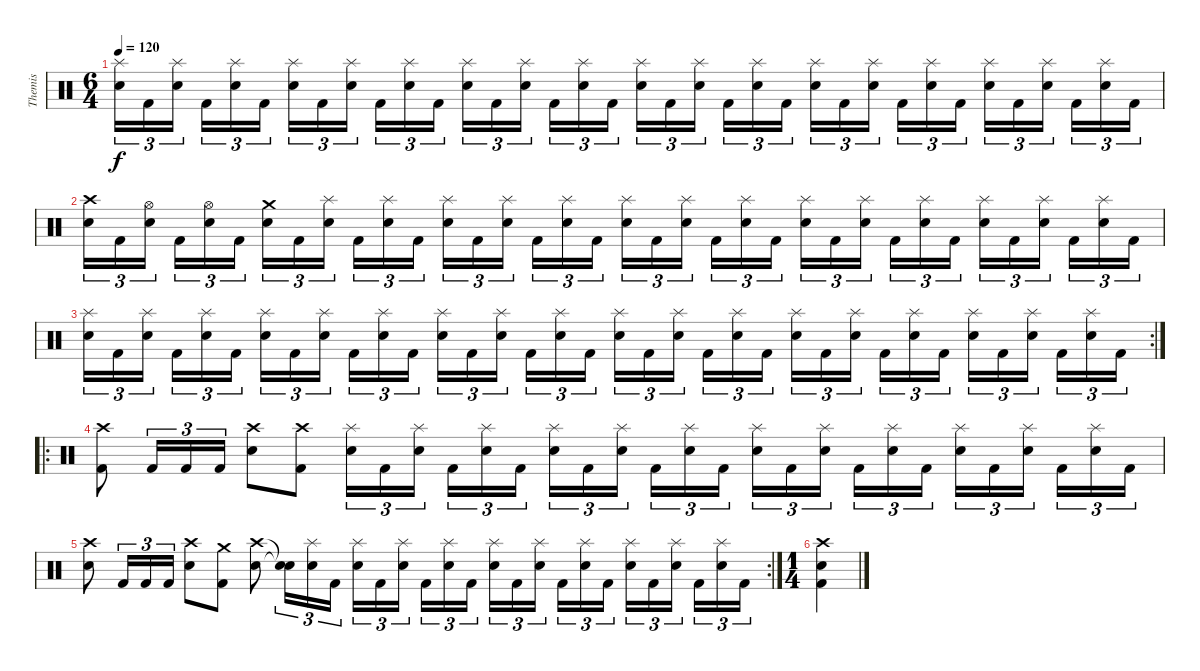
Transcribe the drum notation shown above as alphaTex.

\track ("Themis" "Themis") {instrument percussion}
\staff {score}
\articulation defaults
\ts (6 4)
\tempo 120
\clef neutral
\ks c
("Splash (hit)" "Electric Snare (hit)").16{tu (3 2) dy f} "Kick (hit) 2".16{tu (3 2)} ("Splash (hit)" "Electric Snare (hit)").16{tu (3 2)} "Kick (hit) 2".16{tu (3 2)} ("Splash (hit)" "Electric Snare (hit)").16{tu (3 2)} "Kick (hit) 2".16{tu (3 2)} ("Splash (hit)" "Electric Snare (hit)").16{tu (3 2)} "Kick (hit) 2".16{tu (3 2)} ("Splash (hit)" "Electric Snare (hit)").16{tu (3 2)} "Kick (hit) 2".16{tu (3 2)} ("Splash (hit)" "Electric Snare (hit)").16{tu (3 2)} "Kick (hit) 2".16{tu (3 2)} ("Splash (hit)" "Electric Snare (hit)").16{tu (3 2)} "Kick (hit) 2".16{tu (3 2)} ("Splash (hit)" "Electric Snare (hit)").16{tu (3 2)} "Kick (hit) 2".16{tu (3 2)} ("Splash (hit)" "Electric Snare (hit)").16{tu (3 2)} "Kick (hit) 2".16{tu (3 2)} ("Splash (hit)" "Electric Snare (hit)").16{tu (3 2)} "Kick (hit) 2".16{tu (3 2)} ("Splash (hit)" "Electric Snare (hit)").16{tu (3 2)} "Kick (hit) 2".16{tu (3 2)} ("Splash (hit)" "Electric Snare (hit)").16{tu (3 2)} "Kick (hit) 2".16{tu (3 2)} ("Splash (hit)" "Electric Snare (hit)").16{tu (3 2)} "Kick (hit) 2".16{tu (3 2)} ("Splash (hit)" "Electric Snare (hit)").16{tu (3 2)} "Kick (hit) 2".16{tu (3 2)} ("Splash (hit)" "Electric Snare (hit)").16{tu (3 2)} "Kick (hit) 2".16{tu (3 2)} ("Splash (hit)" "Electric Snare (hit)").16{tu (3 2)} "Kick (hit) 2".16{tu (3 2)} ("Splash (hit)" "Electric Snare (hit)").16{tu (3 2)} "Kick (hit) 2".16{tu (3 2)} ("Splash (hit)" "Electric Snare (hit)").16{tu (3 2)} "Kick (hit) 2".16{tu (3 2)} |
("Crash high (hit)" "Electric Snare (hit)").16{tu (3 2)} "Kick (hit) 2".16{tu (3 2)} ("Hi-Hat (open)" "Electric Snare (hit)").16{tu (3 2)} "Kick (hit) 2".16{tu (3 2)} ("Hi-Hat (open)" "Electric Snare (hit)").16{tu (3 2)} "Kick (hit) 2".16{tu (3 2)} ("Crash medium (hit)" "Electric Snare (hit)").16{tu (3 2)} "Kick (hit) 2".16{tu (3 2)} ("Splash (hit)" "Electric Snare (hit)").16{tu (3 2)} "Kick (hit) 2".16{tu (3 2)} ("Splash (hit)" "Electric Snare (hit)").16{tu (3 2)} "Kick (hit) 2".16{tu (3 2)} ("Splash (hit)" "Electric Snare (hit)").16{tu (3 2)} "Kick (hit) 2".16{tu (3 2)} ("Splash (hit)" "Electric Snare (hit)").16{tu (3 2)} "Kick (hit) 2".16{tu (3 2)} ("Splash (hit)" "Electric Snare (hit)").16{tu (3 2)} "Kick (hit) 2".16{tu (3 2)} ("Splash (hit)" "Electric Snare (hit)").16{tu (3 2)} "Kick (hit) 2".16{tu (3 2)} ("Splash (hit)" "Electric Snare (hit)").16{tu (3 2)} "Kick (hit) 2".16{tu (3 2)} ("Splash (hit)" "Electric Snare (hit)").16{tu (3 2)} "Kick (hit) 2".16{tu (3 2)} ("Splash (hit)" "Electric Snare (hit)").16{tu (3 2)} "Kick (hit) 2".16{tu (3 2)} ("Splash (hit)" "Electric Snare (hit)").16{tu (3 2)} "Kick (hit) 2".16{tu (3 2)} ("Splash (hit)" "Electric Snare (hit)").16{tu (3 2)} "Kick (hit) 2".16{tu (3 2)} ("Splash (hit)" "Electric Snare (hit)").16{tu (3 2)} "Kick (hit) 2".16{tu (3 2)} ("Splash (hit)" "Electric Snare (hit)").16{tu (3 2)} "Kick (hit) 2".16{tu (3 2)} ("Splash (hit)" "Electric Snare (hit)").16{tu (3 2)} "Kick (hit) 2".16{tu (3 2)} |
\rc 2
("Splash (hit)" "Electric Snare (hit)").16{tu (3 2)} "Kick (hit) 2".16{tu (3 2)} ("Splash (hit)" "Electric Snare (hit)").16{tu (3 2)} "Kick (hit) 2".16{tu (3 2)} ("Splash (hit)" "Electric Snare (hit)").16{tu (3 2)} "Kick (hit) 2".16{tu (3 2)} ("Splash (hit)" "Electric Snare (hit)").16{tu (3 2)} "Kick (hit) 2".16{tu (3 2)} ("Splash (hit)" "Electric Snare (hit)").16{tu (3 2)} "Kick (hit) 2".16{tu (3 2)} ("Splash (hit)" "Electric Snare (hit)").16{tu (3 2)} "Kick (hit) 2".16{tu (3 2)} ("Splash (hit)" "Electric Snare (hit)").16{tu (3 2)} "Kick (hit) 2".16{tu (3 2)} ("Splash (hit)" "Electric Snare (hit)").16{tu (3 2)} "Kick (hit) 2".16{tu (3 2)} ("Splash (hit)" "Electric Snare (hit)").16{tu (3 2)} "Kick (hit) 2".16{tu (3 2)} ("Splash (hit)" "Electric Snare (hit)").16{tu (3 2)} "Kick (hit) 2".16{tu (3 2)} ("Splash (hit)" "Electric Snare (hit)").16{tu (3 2)} "Kick (hit) 2".16{tu (3 2)} ("Splash (hit)" "Electric Snare (hit)").16{tu (3 2)} "Kick (hit) 2".16{tu (3 2)} ("Splash (hit)" "Electric Snare (hit)").16{tu (3 2)} "Kick (hit) 2".16{tu (3 2)} ("Splash (hit)" "Electric Snare (hit)").16{tu (3 2)} "Kick (hit) 2".16{tu (3 2)} ("Splash (hit)" "Electric Snare (hit)").16{tu (3 2)} "Kick (hit) 2".16{tu (3 2)} ("Splash (hit)" "Electric Snare (hit)").16{tu (3 2)} "Kick (hit) 2".16{tu (3 2)} ("Splash (hit)" "Electric Snare (hit)").16{tu (3 2)} "Kick (hit) 2".16{tu (3 2)} ("Splash (hit)" "Electric Snare (hit)").16{tu (3 2)} "Kick (hit) 2".16{tu (3 2)} |
\ro
("Crash high (hit)" "Kick (hit) 2").8 "Kick (hit) 2".16{tu (3 2)} "Kick (hit) 2".16{tu (3 2)} "Kick (hit) 2".16{tu (3 2)} ("Crash high (hit)" "Electric Snare (hit)").8 ("Crash high (hit)" "Kick (hit) 2").8 ("Splash (hit)" "Electric Snare (hit)").16{tu (3 2)} "Kick (hit) 2".16{tu (3 2)} ("Splash (hit)" "Electric Snare (hit)").16{tu (3 2)} "Kick (hit) 2".16{tu (3 2)} ("Splash (hit)" "Electric Snare (hit)").16{tu (3 2)} "Kick (hit) 2".16{tu (3 2)} ("Splash (hit)" "Electric Snare (hit)").16{tu (3 2)} "Kick (hit) 2".16{tu (3 2)} ("Splash (hit)" "Electric Snare (hit)").16{tu (3 2)} "Kick (hit) 2".16{tu (3 2)} ("Splash (hit)" "Electric Snare (hit)").16{tu (3 2)} "Kick (hit) 2".16{tu (3 2)} ("Splash (hit)" "Electric Snare (hit)").16{tu (3 2)} "Kick (hit) 2".16{tu (3 2)} ("Splash (hit)" "Electric Snare (hit)").16{tu (3 2)} "Kick (hit) 2".16{tu (3 2)} ("Splash (hit)" "Electric Snare (hit)").16{tu (3 2)} "Kick (hit) 2".16{tu (3 2)} ("Splash (hit)" "Electric Snare (hit)").16{tu (3 2)} "Kick (hit) 2".16{tu (3 2)} ("Splash (hit)" "Electric Snare (hit)").16{tu (3 2)} "Kick (hit) 2".16{tu (3 2)} ("Splash (hit)" "Electric Snare (hit)").16{tu (3 2)} "Kick (hit) 2".16{tu (3 2)} |
\rc 2
("Crash high (hit)" "Electric Snare (hit)").8 "Kick (hit) 2".16{tu (3 2)} "Kick (hit) 2".16{tu (3 2)} "Kick (hit) 2".16{tu (3 2)} ("Crash high (hit)" "Electric Snare (hit)").8 ("Crash medium (hit)" "Kick (hit) 2").8 ("Crash high (hit)" "Electric Snare (hit)").8 ("Snare (hit)"{t} "Snare (hit)"{t}).16{tu (3 2)} ("Splash (hit)" "Electric Snare (hit)").16{tu (3 2)} "Kick (hit) 2".16{tu (3 2)} ("Splash (hit)" "Electric Snare (hit)").16{tu (3 2)} "Kick (hit) 2".16{tu (3 2)} ("Splash (hit)" "Electric Snare (hit)").16{tu (3 2)} "Kick (hit) 2".16{tu (3 2)} ("Splash (hit)" "Electric Snare (hit)").16{tu (3 2)} "Kick (hit) 2".16{tu (3 2)} ("Splash (hit)" "Electric Snare (hit)").16{tu (3 2)} "Kick (hit) 2".16{tu (3 2)} ("Splash (hit)" "Electric Snare (hit)").16{tu (3 2)} "Kick (hit) 2".16{tu (3 2)} ("Splash (hit)" "Electric Snare (hit)").16{tu (3 2)} "Kick (hit) 2".16{tu (3 2)} ("Splash (hit)" "Electric Snare (hit)").16{tu (3 2)} "Kick (hit) 2".16{tu (3 2)} ("Splash (hit)" "Electric Snare (hit)").16{tu (3 2)} "Kick (hit) 2".16{tu (3 2)} ("Splash (hit)" "Electric Snare (hit)").16{tu (3 2)} "Kick (hit) 2".16{tu (3 2)} |
\ts (1 4)
("Crash high (hit)" "Electric Snare (hit)" "Kick (hit) 2").4
